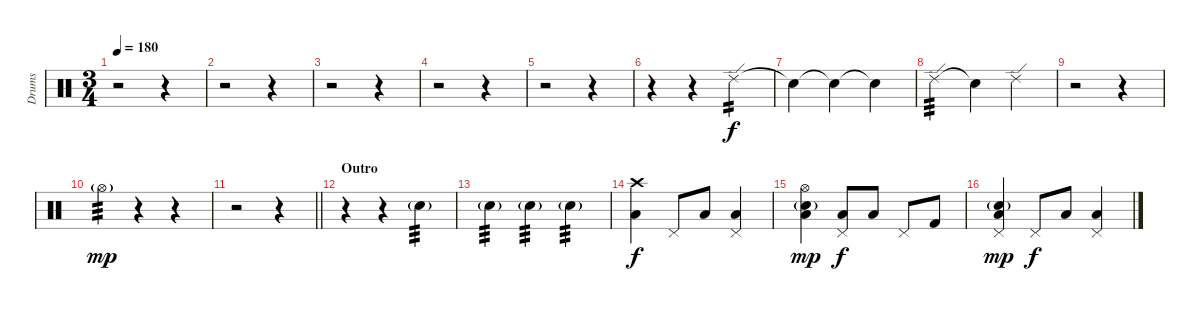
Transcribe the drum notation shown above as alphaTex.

\track ("Drums" "Drums") {instrument percussion}
\staff {score}
\articulation defaults
\ts (3 4)
\tempo 180
\clef neutral
\ks c
r.2{dy f} r.4 |
r.2 r.4 |
r.2 r.4 |
r.2 r.4 |
r.2 r.4 |
r.4 r.4{volume 8} "Ride (edge) 2".4{tp 2 volume 16} |
"Snare (hit)"{t}.4 "Snare (hit)"{t}.4{volume 8} "Snare (hit)"{t}.4 |
"Ride (edge) 2".4{tp 3 volume 16} "Snare (hit)"{t}.4 "Ride (edge) 2".4 |
r.2 r.4 |
"Hi-Hat (open)"{g}.4{tp 3 dy mp} r.4 r.4 |
\barLineRight lightlight
r.2 r.4 |
\section ("" "Outro")
r.4{volume 3} r.4 "Electric Snare (hit)"{g}.4{tp 3 volume 12} |
"Electric Snare (hit)"{g}.4{tp 3} "Electric Snare (hit)"{g}.4{tp 3} "Electric Snare (hit)"{g}.4{tp 3} |
("Crash high (hit)" "Low Tom (hit)").4{dy f volume 13} "Pedal Hi-Hat (hit)".8 "Low Tom (hit)".8 ("Pedal Hi-Hat (hit)" "Low Tom (hit)").4 |
("Hi-Hat (open)" "Snare (hit) 2"{g} "Low Tom (hit)").4{dy mp} ("Pedal Hi-Hat (hit)" "Low Tom (hit)").8{dy f} "Low Tom (hit)".8 "Pedal Hi-Hat (hit)".8 "Kick (hit) 2".8 |
("Snare (hit) 2"{g} "Pedal Hi-Hat (hit)" "Low Tom (hit)").4{dy mp} "Pedal Hi-Hat (hit)".8{dy f} "Low Tom (hit)".8 ("Pedal Hi-Hat (hit)" "Low Tom (hit)").4
